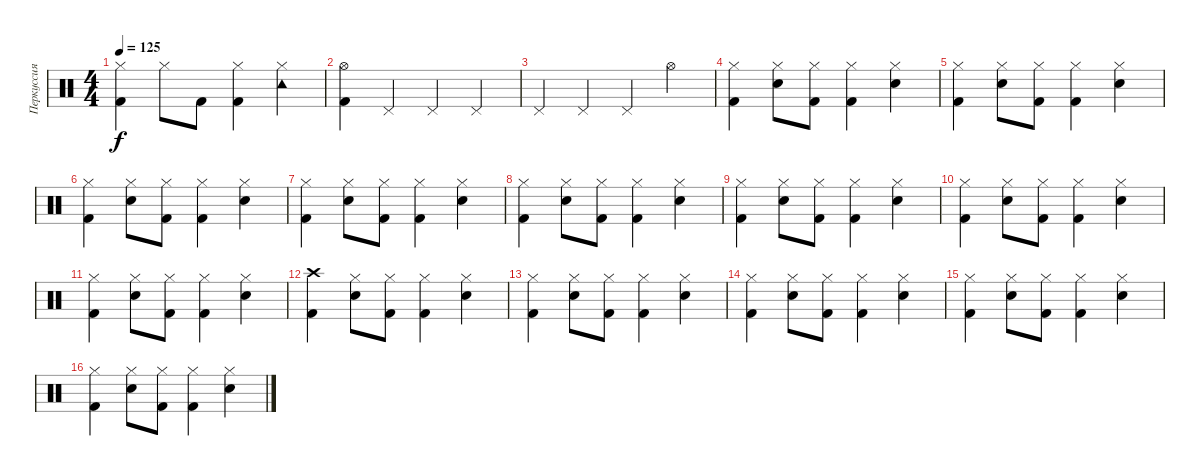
\track ("Перкуссия" "Перкуссия") {instrument percussion}
\staff {score}
\articulation defaults
\ts (4 4)
\tempo 125
\clef neutral
\ks c
("Hi-Hat (closed)" "Kick (hit) 2").4{dy f} "Hi-Hat (closed)".8 "Kick (hit) 2".8 ("Hi-Hat (closed)" "Kick (hit) 2").4 ("Hi-Hat (closed)" "Tambourine (hit)").4 |
("Hi-Hat (open)" "Kick (hit) 2").4 "Pedal Hi-Hat (hit)".4 "Pedal Hi-Hat (hit)".4 "Pedal Hi-Hat (hit)".4 |
"Pedal Hi-Hat (hit)".4 "Pedal Hi-Hat (hit)".4 "Pedal Hi-Hat (hit)".4 "Hi-Hat (open)".4 |
("Hi-Hat (closed)" "Kick (hit) 2").4 ("Hi-Hat (closed)" "Snare (hit) 2").8 ("Hi-Hat (closed)" "Kick (hit) 2").8 ("Hi-Hat (closed)" "Kick (hit) 2").4 ("Hi-Hat (closed)" "Snare (hit) 2").4 |
("Hi-Hat (closed)" "Kick (hit) 2").4 ("Hi-Hat (closed)" "Snare (hit) 2").8 ("Hi-Hat (closed)" "Kick (hit) 2").8 ("Hi-Hat (closed)" "Kick (hit) 2").4 ("Hi-Hat (closed)" "Snare (hit) 2").4 |
("Hi-Hat (closed)" "Kick (hit) 2").4 ("Hi-Hat (closed)" "Snare (hit) 2").8 ("Hi-Hat (closed)" "Kick (hit) 2").8 ("Hi-Hat (closed)" "Kick (hit) 2").4 ("Hi-Hat (closed)" "Snare (hit) 2").4 |
("Hi-Hat (closed)" "Kick (hit) 2").4 ("Hi-Hat (closed)" "Snare (hit) 2").8 ("Hi-Hat (closed)" "Kick (hit) 2").8 ("Hi-Hat (closed)" "Kick (hit) 2").4 ("Hi-Hat (closed)" "Snare (hit) 2").4 |
("Hi-Hat (closed)" "Kick (hit) 2").4 ("Hi-Hat (closed)" "Snare (hit) 2").8 ("Hi-Hat (closed)" "Kick (hit) 2").8 ("Hi-Hat (closed)" "Kick (hit) 2").4 ("Hi-Hat (closed)" "Snare (hit) 2").4 |
("Hi-Hat (closed)" "Kick (hit) 2").4 ("Hi-Hat (closed)" "Snare (hit) 2").8 ("Hi-Hat (closed)" "Kick (hit) 2").8 ("Hi-Hat (closed)" "Kick (hit) 2").4 ("Hi-Hat (closed)" "Snare (hit) 2").4 |
("Hi-Hat (closed)" "Kick (hit) 2").4 ("Hi-Hat (closed)" "Snare (hit) 2").8 ("Hi-Hat (closed)" "Kick (hit) 2").8 ("Hi-Hat (closed)" "Kick (hit) 2").4 ("Hi-Hat (closed)" "Snare (hit) 2").4 |
("Hi-Hat (closed)" "Kick (hit) 2").4 ("Hi-Hat (closed)" "Snare (hit) 2").8 ("Hi-Hat (closed)" "Kick (hit) 2").8 ("Hi-Hat (closed)" "Kick (hit) 2").4 ("Hi-Hat (closed)" "Snare (hit) 2").4 |
("Crash high (hit)" "Kick (hit) 2").4 ("Hi-Hat (closed)" "Snare (hit) 2").8 ("Hi-Hat (closed)" "Kick (hit) 2").8 ("Hi-Hat (closed)" "Kick (hit) 2").4 ("Hi-Hat (closed)" "Snare (hit) 2").4 |
("Hi-Hat (closed)" "Kick (hit) 2").4 ("Hi-Hat (closed)" "Snare (hit) 2").8 ("Hi-Hat (closed)" "Kick (hit) 2").8 ("Hi-Hat (closed)" "Kick (hit) 2").4 ("Hi-Hat (closed)" "Snare (hit) 2").4 |
("Hi-Hat (closed)" "Kick (hit) 2").4 ("Hi-Hat (closed)" "Snare (hit) 2").8 ("Hi-Hat (closed)" "Kick (hit) 2").8 ("Hi-Hat (closed)" "Kick (hit) 2").4 ("Hi-Hat (closed)" "Snare (hit) 2").4 |
("Hi-Hat (closed)" "Kick (hit) 2").4 ("Hi-Hat (closed)" "Snare (hit) 2").8 ("Hi-Hat (closed)" "Kick (hit) 2").8 ("Hi-Hat (closed)" "Kick (hit) 2").4 ("Hi-Hat (closed)" "Snare (hit) 2").4 |
("Hi-Hat (closed)" "Kick (hit) 2").4 ("Hi-Hat (closed)" "Snare (hit) 2").8 ("Hi-Hat (closed)" "Kick (hit) 2").8 ("Hi-Hat (closed)" "Kick (hit) 2").4 ("Hi-Hat (closed)" "Snare (hit) 2").4
